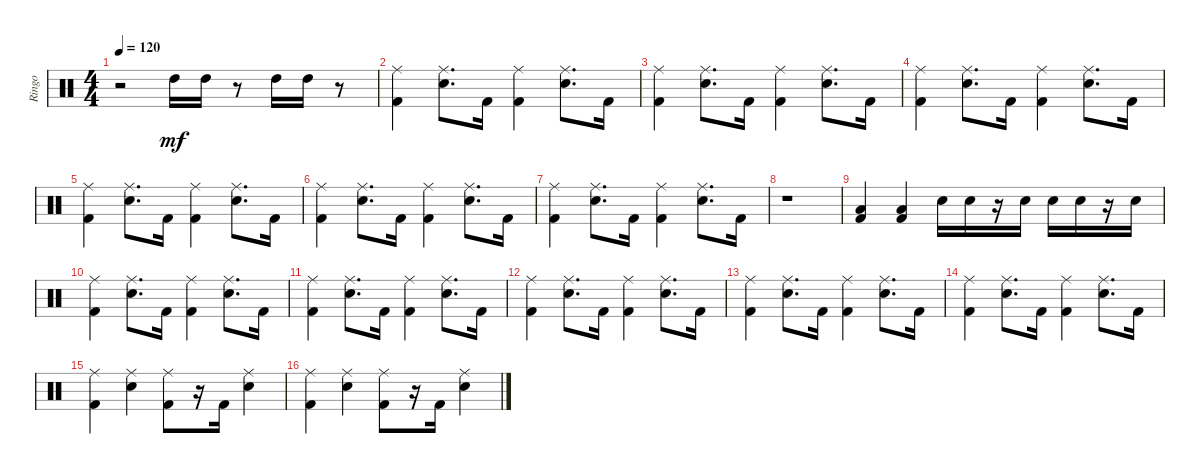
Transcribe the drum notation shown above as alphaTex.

\track ("Ringo" "Ringo") {instrument percussion}
\staff {score}
\articulation defaults
\ts (4 4)
\tempo 120
\clef neutral
\ks c
r.2{dy mf} "High Tom (hit)".16 "High Tom (hit)".16 r.8 "High Tom (hit)".16 "High Tom (hit)".16 r.8 |
("Kick (hit) 2" "Ride (middle)").4 ("Electric Snare (hit)" "Ride (middle)").8{d} "Kick (hit) 2".16 ("Kick (hit) 2" "Ride (middle)").4 ("Electric Snare (hit)" "Ride (middle)").8{d} "Kick (hit) 2".16 |
("Kick (hit) 2" "Ride (middle)").4 ("Electric Snare (hit)" "Ride (middle)").8{d} "Kick (hit) 2".16 ("Kick (hit) 2" "Ride (middle)").4 ("Electric Snare (hit)" "Ride (middle)").8{d} "Kick (hit) 2".16 |
("Kick (hit) 2" "Ride (middle)").4 ("Electric Snare (hit)" "Ride (middle)").8{d} "Kick (hit) 2".16 ("Kick (hit) 2" "Ride (middle)").4 ("Electric Snare (hit)" "Ride (middle)").8{d} "Kick (hit) 2".16 |
("Kick (hit) 2" "Ride (middle)").4 ("Electric Snare (hit)" "Ride (middle)").8{d} "Kick (hit) 2".16 ("Kick (hit) 2" "Ride (middle)").4 ("Electric Snare (hit)" "Ride (middle)").8{d} "Kick (hit) 2".16 |
("Kick (hit) 2" "Ride (middle)").4 ("Electric Snare (hit)" "Ride (middle)").8{d} "Kick (hit) 2".16 ("Kick (hit) 2" "Ride (middle)").4 ("Electric Snare (hit)" "Ride (middle)").8{d} "Kick (hit) 2".16 |
("Kick (hit) 2" "Ride (middle)").4 ("Electric Snare (hit)" "Ride (middle)").8{d} "Kick (hit) 2".16 ("Kick (hit) 2" "Ride (middle)").4 ("Electric Snare (hit)" "Ride (middle)").8{d} "Kick (hit) 2".16 |
r.1 |
("Kick (hit) 2" "Low Tom (hit)").4 ("Kick (hit) 2" "Low Tom (hit)").4 "Electric Snare (hit)".16 "Electric Snare (hit)".16 r.16 "Electric Snare (hit)".16 "Electric Snare (hit)".16 "Electric Snare (hit)".16 r.16 "Electric Snare (hit)".16 |
("Kick (hit) 2" "Ride (middle)").4 ("Electric Snare (hit)" "Ride (middle)").8{d} "Kick (hit) 2".16 ("Kick (hit) 2" "Ride (middle)").4 ("Electric Snare (hit)" "Ride (middle)").8{d} "Kick (hit) 2".16 |
("Kick (hit) 2" "Ride (middle)").4 ("Electric Snare (hit)" "Ride (middle)").8{d} "Kick (hit) 2".16 ("Kick (hit) 2" "Ride (middle)").4 ("Electric Snare (hit)" "Ride (middle)").8{d} "Kick (hit) 2".16 |
("Kick (hit) 2" "Ride (middle)").4 ("Electric Snare (hit)" "Ride (middle)").8{d} "Kick (hit) 2".16 ("Kick (hit) 2" "Ride (middle)").4 ("Electric Snare (hit)" "Ride (middle)").8{d} "Kick (hit) 2".16 |
("Kick (hit) 2" "Ride (middle)").4 ("Electric Snare (hit)" "Ride (middle)").8{d} "Kick (hit) 2".16 ("Kick (hit) 2" "Ride (middle)").4 ("Electric Snare (hit)" "Ride (middle)").8{d} "Kick (hit) 2".16 |
("Kick (hit) 2" "Ride (middle)").4 ("Electric Snare (hit)" "Ride (middle)").8{d} "Kick (hit) 2".16 ("Kick (hit) 2" "Ride (middle)").4 ("Electric Snare (hit)" "Ride (middle)").8{d} "Kick (hit) 2".16 |
("Kick (hit) 2" "Ride (middle)").4 ("Electric Snare (hit)" "Ride (middle)").4 ("Ride (middle)" "Kick (hit) 2").8 r.16 "Kick (hit) 2".16 ("Electric Snare (hit)" "Ride (middle)").4 |
("Kick (hit) 2" "Ride (middle)").4 ("Electric Snare (hit)" "Ride (middle)").4 ("Ride (middle)" "Kick (hit) 2").8 r.16 "Kick (hit) 2".16 ("Electric Snare (hit)" "Ride (middle)").4
